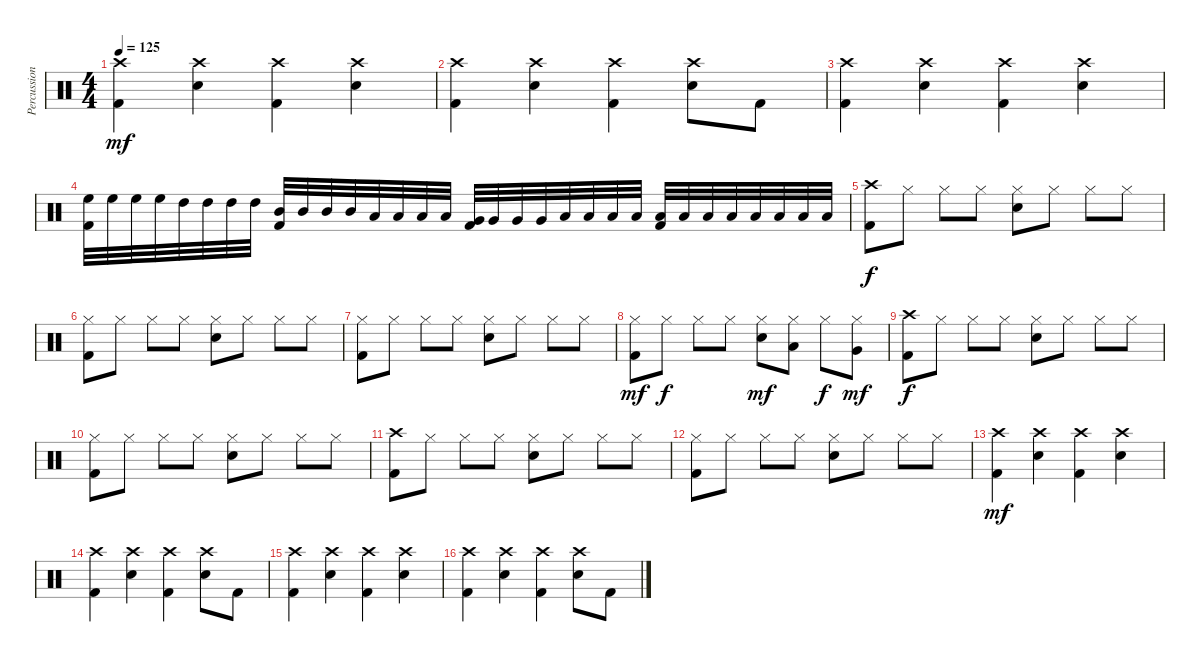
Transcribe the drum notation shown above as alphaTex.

\track ("Percussion" "Percussion") {instrument percussion}
\staff {score}
\articulation defaults
\ts (4 4)
\tempo 125
\clef neutral
\ks c
("Kick (hit) 2" "Crash high (hit)").4{dy mf} ("Electric Snare (hit)" "Crash high (hit)").4 ("Kick (hit) 2" "Crash high (hit)").4 ("Electric Snare (hit)" "Crash high (hit)").4 |
("Kick (hit) 2" "Crash high (hit)").4 ("Electric Snare (hit)" "Crash high (hit)").4 ("Kick (hit) 2" "Crash high (hit)").4 ("Electric Snare (hit)" "Crash high (hit)").8 "Kick (hit) 2".8 |
("Kick (hit) 2" "Crash high (hit)").4 ("Electric Snare (hit)" "Crash high (hit)").4 ("Kick (hit) 2" "Crash high (hit)").4 ("Electric Snare (hit)" "Crash high (hit)").4 |
("High Floor Tom (hit)" "Kick (hit) 2").32 "High Floor Tom (hit)".32 "High Floor Tom (hit)".32 "High Floor Tom (hit)".32 "High Tom (hit)".32 "High Tom (hit)".32 "High Tom (hit)".32 "High Tom (hit)".32 ("Mid Tom (hit)" "Kick (hit) 2").32 "Mid Tom (hit)".32 "Mid Tom (hit)".32 "Mid Tom (hit)".32 "Low Tom (hit)".32 "Low Tom (hit)".32 "Low Tom (hit)".32 "Low Tom (hit)".32 ("Very Low Tom (hit)" "Kick (hit) 2").32 "Very Low Tom (hit)".32 "Very Low Tom (hit)".32 "Very Low Tom (hit)".32 "Low Floor Tom (hit)".32 "Low Floor Tom (hit)".32 "Low Floor Tom (hit)".32 "Low Floor Tom (hit)".32 ("Low Floor Tom (hit)" "Kick (hit) 2").32 "Low Floor Tom (hit)".32 "Low Floor Tom (hit)".32 "Low Floor Tom (hit)".32 "Low Floor Tom (hit)".32 "Low Floor Tom (hit)".32 "Low Floor Tom (hit)".32 "Low Floor Tom (hit)".32 |
("Kick (hit) 2" "Crash high (hit)").8{dy f} "Hi-Hat (closed)".8 "Hi-Hat (closed)".8 "Hi-Hat (closed)".8 ("Electric Snare (hit)" "Hi-Hat (closed)").8 "Hi-Hat (closed)".8 "Hi-Hat (closed)".8 "Hi-Hat (closed)".8 |
("Kick (hit) 2" "Hi-Hat (closed)").8 "Hi-Hat (closed)".8 "Hi-Hat (closed)".8 "Hi-Hat (closed)".8 ("Electric Snare (hit)" "Hi-Hat (closed)").8 "Hi-Hat (closed)".8 "Hi-Hat (closed)".8 "Hi-Hat (closed)".8 |
("Kick (hit) 2" "Hi-Hat (closed)").8 "Hi-Hat (closed)".8 "Hi-Hat (closed)".8 "Hi-Hat (closed)".8 ("Electric Snare (hit)" "Hi-Hat (closed)").8 "Hi-Hat (closed)".8 "Hi-Hat (closed)".8 "Hi-Hat (closed)".8 |
("Kick (hit) 2" "Hi-Hat (closed)").8{dy mf} "Hi-Hat (closed)".8{dy f} "Hi-Hat (closed)".8 "Hi-Hat (closed)".8 ("Electric Snare (hit)" "Hi-Hat (closed)").8{dy mf} ("Low Tom (hit)" "Hi-Hat (closed)").8 "Hi-Hat (closed)".8{dy f} ("Very Low Tom (hit)" "Hi-Hat (closed)").8{dy mf} |
("Kick (hit) 2" "Crash high (hit)").8{dy f} "Hi-Hat (closed)".8 "Hi-Hat (closed)".8 "Hi-Hat (closed)".8 ("Electric Snare (hit)" "Hi-Hat (closed)").8 "Hi-Hat (closed)".8 "Hi-Hat (closed)".8 "Hi-Hat (closed)".8 |
("Kick (hit) 2" "Hi-Hat (closed)").8 "Hi-Hat (closed)".8 "Hi-Hat (closed)".8 "Hi-Hat (closed)".8 ("Electric Snare (hit)" "Hi-Hat (closed)").8 "Hi-Hat (closed)".8 "Hi-Hat (closed)".8 "Hi-Hat (closed)".8 |
("Kick (hit) 2" "Crash high (hit)").8 "Hi-Hat (closed)".8 "Hi-Hat (closed)".8 "Hi-Hat (closed)".8 ("Electric Snare (hit)" "Hi-Hat (closed)").8 "Hi-Hat (closed)".8 "Hi-Hat (closed)".8 "Hi-Hat (closed)".8 |
("Kick (hit) 2" "Hi-Hat (closed)").8 "Hi-Hat (closed)".8 "Hi-Hat (closed)".8 "Hi-Hat (closed)".8 ("Electric Snare (hit)" "Hi-Hat (closed)").8 "Hi-Hat (closed)".8 "Hi-Hat (closed)".8 "Hi-Hat (closed)".8 |
("Kick (hit) 2" "Crash high (hit)").4{dy mf} ("Electric Snare (hit)" "Crash high (hit)").4 ("Kick (hit) 2" "Crash high (hit)").4 ("Electric Snare (hit)" "Crash high (hit)").4 |
("Kick (hit) 2" "Crash high (hit)").4 ("Electric Snare (hit)" "Crash high (hit)").4 ("Kick (hit) 2" "Crash high (hit)").4 ("Electric Snare (hit)" "Crash high (hit)").8 "Kick (hit) 2".8 |
("Kick (hit) 2" "Crash high (hit)").4 ("Electric Snare (hit)" "Crash high (hit)").4 ("Kick (hit) 2" "Crash high (hit)").4 ("Electric Snare (hit)" "Crash high (hit)").4 |
("Kick (hit) 2" "Crash high (hit)").4 ("Electric Snare (hit)" "Crash high (hit)").4 ("Kick (hit) 2" "Crash high (hit)").4 ("Electric Snare (hit)" "Crash high (hit)").8 "Kick (hit) 2".8
